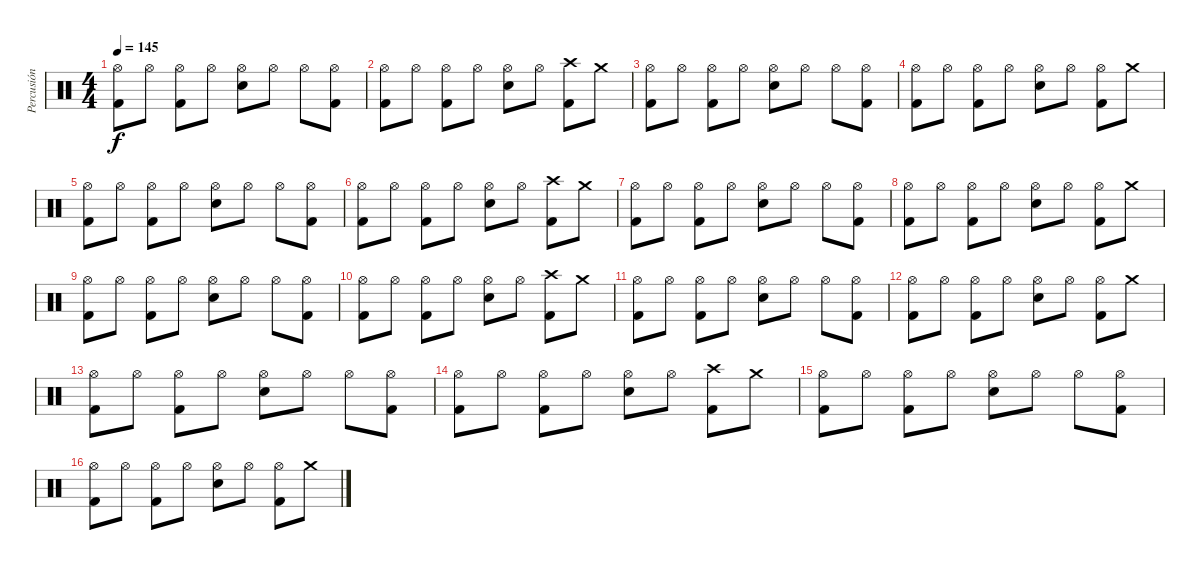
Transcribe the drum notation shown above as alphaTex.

\track ("Percusión" "Percusión") {instrument percussion}
\staff {score}
\articulation defaults
\ts (4 4)
\tempo 145
\clef neutral
\ks c
("Hi-Hat (open)" "Kick (hit) 2").8{dy f} "Hi-Hat (open)".8 ("Hi-Hat (open)" "Kick (hit) 2").8 "Hi-Hat (open)".8 ("Hi-Hat (open)" "Snare (hit) 2").8 "Hi-Hat (open)".8 "Hi-Hat (open)".8 ("Hi-Hat (open)" "Kick (hit) 2").8 |
("Hi-Hat (open)" "Kick (hit) 2").8 "Hi-Hat (open)".8 ("Hi-Hat (open)" "Kick (hit) 2").8 "Hi-Hat (open)".8 ("Hi-Hat (open)" "Snare (hit) 2").8 "Hi-Hat (open)".8 ("Crash high (hit)" "Kick (hit) 2").8 "Crash medium (hit)".8 |
("Hi-Hat (open)" "Kick (hit) 2").8 "Hi-Hat (open)".8 ("Hi-Hat (open)" "Kick (hit) 2").8 "Hi-Hat (open)".8 ("Hi-Hat (open)" "Snare (hit) 2").8 "Hi-Hat (open)".8 "Hi-Hat (open)".8 ("Hi-Hat (open)" "Kick (hit) 2").8 |
("Hi-Hat (open)" "Kick (hit) 2").8 "Hi-Hat (open)".8 ("Hi-Hat (open)" "Kick (hit) 2").8 "Hi-Hat (open)".8 ("Hi-Hat (open)" "Snare (hit) 2").8 "Hi-Hat (open)".8 ("Hi-Hat (open)" "Kick (hit) 2").8 "Crash medium (hit)".8 |
("Hi-Hat (open)" "Kick (hit) 2").8 "Hi-Hat (open)".8 ("Hi-Hat (open)" "Kick (hit) 2").8 "Hi-Hat (open)".8 ("Hi-Hat (open)" "Snare (hit) 2").8 "Hi-Hat (open)".8 "Hi-Hat (open)".8 ("Hi-Hat (open)" "Kick (hit) 2").8 |
("Hi-Hat (open)" "Kick (hit) 2").8 "Hi-Hat (open)".8 ("Hi-Hat (open)" "Kick (hit) 2").8 "Hi-Hat (open)".8 ("Hi-Hat (open)" "Snare (hit) 2").8 "Hi-Hat (open)".8 ("Crash high (hit)" "Kick (hit) 2").8 "Crash medium (hit)".8 |
("Hi-Hat (open)" "Kick (hit) 2").8 "Hi-Hat (open)".8 ("Hi-Hat (open)" "Kick (hit) 2").8 "Hi-Hat (open)".8 ("Hi-Hat (open)" "Snare (hit) 2").8 "Hi-Hat (open)".8 "Hi-Hat (open)".8 ("Hi-Hat (open)" "Kick (hit) 2").8 |
("Hi-Hat (open)" "Kick (hit) 2").8 "Hi-Hat (open)".8 ("Hi-Hat (open)" "Kick (hit) 2").8 "Hi-Hat (open)".8 ("Hi-Hat (open)" "Snare (hit) 2").8 "Hi-Hat (open)".8 ("Hi-Hat (open)" "Kick (hit) 2").8 "Crash medium (hit)".8 |
("Hi-Hat (open)" "Kick (hit) 2").8 "Hi-Hat (open)".8 ("Hi-Hat (open)" "Kick (hit) 2").8 "Hi-Hat (open)".8 ("Hi-Hat (open)" "Snare (hit) 2").8 "Hi-Hat (open)".8 "Hi-Hat (open)".8 ("Hi-Hat (open)" "Kick (hit) 2").8 |
("Hi-Hat (open)" "Kick (hit) 2").8 "Hi-Hat (open)".8 ("Hi-Hat (open)" "Kick (hit) 2").8 "Hi-Hat (open)".8 ("Hi-Hat (open)" "Snare (hit) 2").8 "Hi-Hat (open)".8 ("Crash high (hit)" "Kick (hit) 2").8 "Crash medium (hit)".8 |
("Hi-Hat (open)" "Kick (hit) 2").8 "Hi-Hat (open)".8 ("Hi-Hat (open)" "Kick (hit) 2").8 "Hi-Hat (open)".8 ("Hi-Hat (open)" "Snare (hit) 2").8 "Hi-Hat (open)".8 "Hi-Hat (open)".8 ("Hi-Hat (open)" "Kick (hit) 2").8 |
("Hi-Hat (open)" "Kick (hit) 2").8 "Hi-Hat (open)".8 ("Hi-Hat (open)" "Kick (hit) 2").8 "Hi-Hat (open)".8 ("Hi-Hat (open)" "Snare (hit) 2").8 "Hi-Hat (open)".8 ("Hi-Hat (open)" "Kick (hit) 2").8 "Crash medium (hit)".8 |
("Hi-Hat (open)" "Kick (hit) 2").8 "Hi-Hat (open)".8 ("Hi-Hat (open)" "Kick (hit) 2").8 "Hi-Hat (open)".8 ("Hi-Hat (open)" "Snare (hit) 2").8 "Hi-Hat (open)".8 "Hi-Hat (open)".8 ("Hi-Hat (open)" "Kick (hit) 2").8 |
("Hi-Hat (open)" "Kick (hit) 2").8 "Hi-Hat (open)".8 ("Hi-Hat (open)" "Kick (hit) 2").8 "Hi-Hat (open)".8 ("Hi-Hat (open)" "Snare (hit) 2").8 "Hi-Hat (open)".8 ("Crash high (hit)" "Kick (hit) 2").8 "Crash medium (hit)".8 |
("Hi-Hat (open)" "Kick (hit) 2").8 "Hi-Hat (open)".8 ("Hi-Hat (open)" "Kick (hit) 2").8 "Hi-Hat (open)".8 ("Hi-Hat (open)" "Snare (hit) 2").8 "Hi-Hat (open)".8 "Hi-Hat (open)".8 ("Hi-Hat (open)" "Kick (hit) 2").8 |
("Hi-Hat (open)" "Kick (hit) 2").8 "Hi-Hat (open)".8 ("Hi-Hat (open)" "Kick (hit) 2").8 "Hi-Hat (open)".8 ("Hi-Hat (open)" "Snare (hit) 2").8 "Hi-Hat (open)".8 ("Hi-Hat (open)" "Kick (hit) 2").8 "Crash medium (hit)".8
